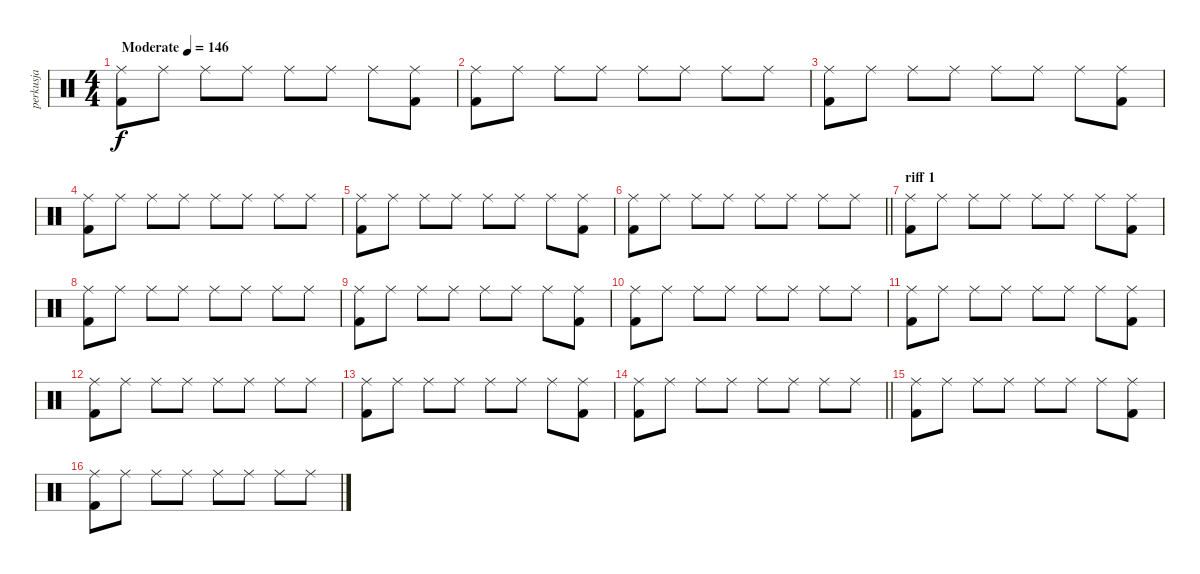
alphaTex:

\track ("perkusja" "perkusja") {instrument percussion}
\staff {score}
\articulation defaults
\ts (4 4)
\tempo (146 "Moderate")
\clef neutral
\ks c
("Ride (middle)" "Kick (hit) 2").8{dy f} "Ride (middle)".8 "Ride (middle)".8 "Ride (middle)".8 "Ride (middle)".8 "Ride (middle)".8 "Ride (middle)".8 ("Ride (middle)" "Kick (hit) 2").8 |
("Ride (middle)" "Kick (hit) 2").8 "Ride (middle)".8 "Ride (middle)".8 "Ride (middle)".8 "Ride (middle)".8 "Ride (middle)".8 "Ride (middle)".8 "Ride (middle)".8 |
("Ride (middle)" "Kick (hit) 2").8 "Ride (middle)".8 "Ride (middle)".8 "Ride (middle)".8 "Ride (middle)".8 "Ride (middle)".8 "Ride (middle)".8 ("Ride (middle)" "Kick (hit) 2").8 |
("Ride (middle)" "Kick (hit) 2").8 "Ride (middle)".8 "Ride (middle)".8 "Ride (middle)".8 "Ride (middle)".8 "Ride (middle)".8 "Ride (middle)".8 "Ride (middle)".8 |
("Ride (middle)" "Kick (hit) 2").8 "Ride (middle)".8 "Ride (middle)".8 "Ride (middle)".8 "Ride (middle)".8 "Ride (middle)".8 "Ride (middle)".8 ("Ride (middle)" "Kick (hit) 2").8 |
\barLineRight lightlight
("Ride (middle)" "Kick (hit) 2").8 "Ride (middle)".8 "Ride (middle)".8 "Ride (middle)".8 "Ride (middle)".8 "Ride (middle)".8 "Ride (middle)".8 "Ride (middle)".8 |
\section ("" "riff 1")
("Ride (middle)" "Kick (hit) 2").8 "Ride (middle)".8 "Ride (middle)".8 "Ride (middle)".8 "Ride (middle)".8 "Ride (middle)".8 "Ride (middle)".8 ("Ride (middle)" "Kick (hit) 2").8 |
("Ride (middle)" "Kick (hit) 2").8 "Ride (middle)".8 "Ride (middle)".8 "Ride (middle)".8 "Ride (middle)".8 "Ride (middle)".8 "Ride (middle)".8 "Ride (middle)".8 |
("Ride (middle)" "Kick (hit) 2").8 "Ride (middle)".8 "Ride (middle)".8 "Ride (middle)".8 "Ride (middle)".8 "Ride (middle)".8 "Ride (middle)".8 ("Ride (middle)" "Kick (hit) 2").8 |
("Ride (middle)" "Kick (hit) 2").8 "Ride (middle)".8 "Ride (middle)".8 "Ride (middle)".8 "Ride (middle)".8 "Ride (middle)".8 "Ride (middle)".8 "Ride (middle)".8 |
("Ride (middle)" "Kick (hit) 2").8 "Ride (middle)".8 "Ride (middle)".8 "Ride (middle)".8 "Ride (middle)".8 "Ride (middle)".8 "Ride (middle)".8 ("Ride (middle)" "Kick (hit) 2").8 |
("Ride (middle)" "Kick (hit) 2").8 "Ride (middle)".8 "Ride (middle)".8 "Ride (middle)".8 "Ride (middle)".8 "Ride (middle)".8 "Ride (middle)".8 "Ride (middle)".8 |
("Ride (middle)" "Kick (hit) 2").8 "Ride (middle)".8 "Ride (middle)".8 "Ride (middle)".8 "Ride (middle)".8 "Ride (middle)".8 "Ride (middle)".8 ("Ride (middle)" "Kick (hit) 2").8 |
\barLineRight lightlight
("Ride (middle)" "Kick (hit) 2").8 "Ride (middle)".8 "Ride (middle)".8 "Ride (middle)".8 "Ride (middle)".8 "Ride (middle)".8 "Ride (middle)".8 "Ride (middle)".8 |
("Ride (middle)" "Kick (hit) 2").8 "Ride (middle)".8 "Ride (middle)".8 "Ride (middle)".8 "Ride (middle)".8 "Ride (middle)".8 "Ride (middle)".8 ("Ride (middle)" "Kick (hit) 2").8 |
("Ride (middle)" "Kick (hit) 2").8 "Ride (middle)".8 "Ride (middle)".8 "Ride (middle)".8 "Ride (middle)".8 "Ride (middle)".8 "Ride (middle)".8 "Ride (middle)".8
